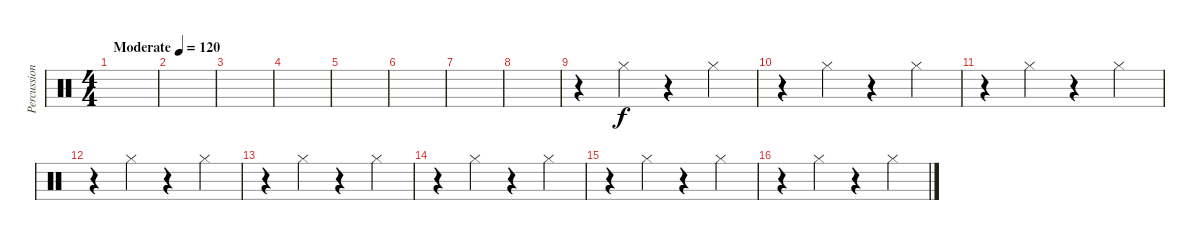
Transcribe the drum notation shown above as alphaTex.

\track ("Percussion" "Percussion") {instrument percussion}
\staff {score}
\articulation defaults
\ts (4 4)
\tempo (120 "Moderate")
\clef neutral
\ks c
|
|
|
|
|
|
|
|
r.4 "Hi-Hat (closed)".4 r.4 "Hi-Hat (closed)".4 |
r.4 "Hi-Hat (closed)".4 r.4 "Hi-Hat (closed)".4 |
r.4 "Hi-Hat (closed)".4 r.4 "Hi-Hat (closed)".4 |
r.4 "Hi-Hat (closed)".4 r.4 "Hi-Hat (closed)".4 |
r.4 "Hi-Hat (closed)".4 r.4 "Hi-Hat (closed)".4 |
r.4 "Hi-Hat (closed)".4 r.4 "Hi-Hat (closed)".4 |
r.4 "Hi-Hat (closed)".4 r.4 "Hi-Hat (closed)".4 |
r.4 "Hi-Hat (closed)".4 r.4 "Hi-Hat (closed)".4
